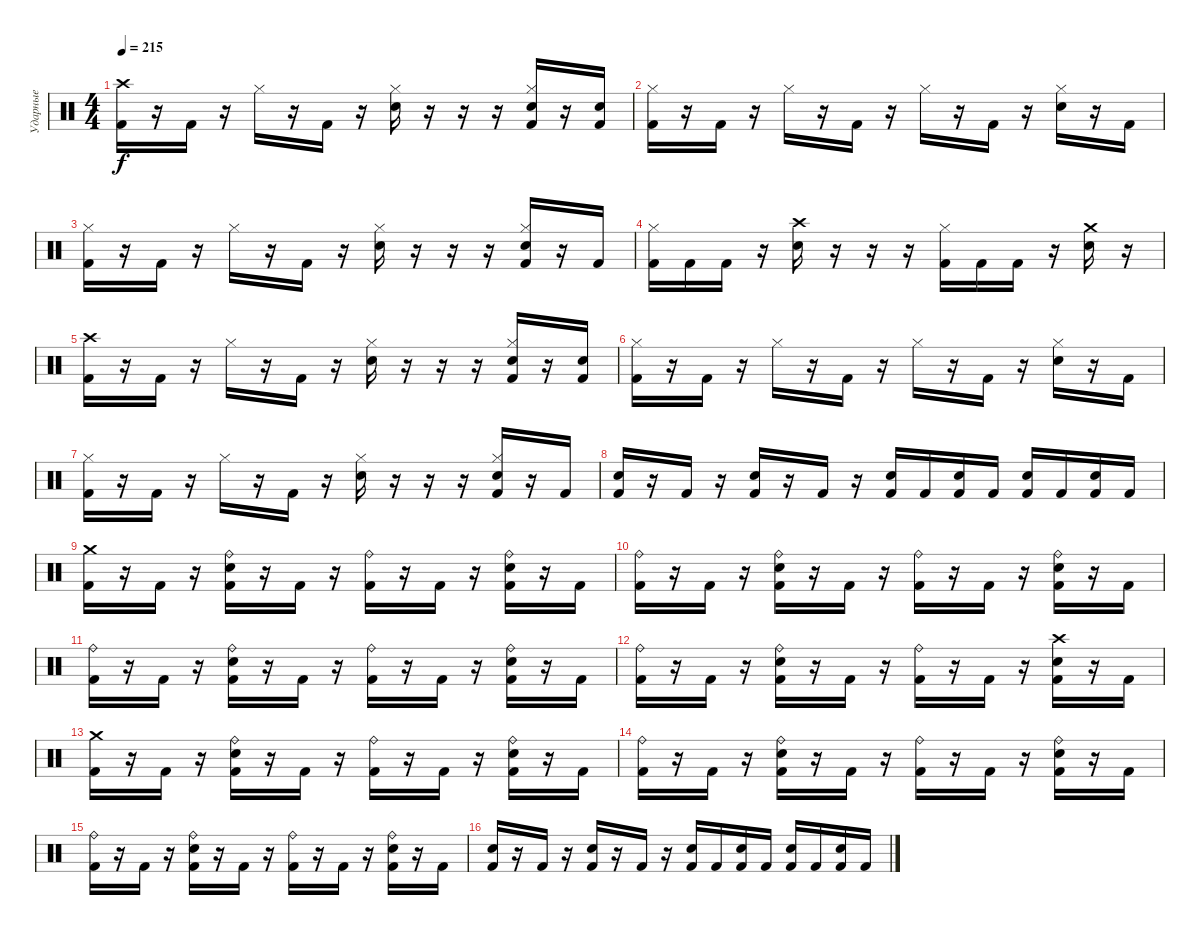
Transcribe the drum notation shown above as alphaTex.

\track ("Ударные" "Ударные") {instrument percussion}
\staff {score}
\articulation defaults
\ts (4 4)
\tempo 215
\clef neutral
\ks c
("Crash high (hit)" "Kick (hit) 2").16{dy f} r.16 "Kick (hit) 2".16 r.16 "Hi-Hat (closed)".16 r.16 "Kick (hit) 2".16 r.16 ("Hi-Hat (closed)" "Snare (hit) 2").16 r.16 r.16 r.16 ("Hi-Hat (closed)" "Snare (hit) 2" "Kick (hit) 2").16 r.16 ("Snare (hit) 2" "Kick (hit) 2").16 |
("Hi-Hat (closed)" "Kick (hit) 2").16 r.16 "Kick (hit) 2".16 r.16 "Hi-Hat (closed)".16 r.16 "Kick (hit) 2".16 r.16 "Hi-Hat (closed)".16 r.16 "Kick (hit) 2".16 r.16 ("Hi-Hat (closed)" "Snare (hit) 2").16 r.16 "Kick (hit) 2".16 |
("Hi-Hat (closed)" "Kick (hit) 2").16 r.16 "Kick (hit) 2".16 r.16 "Hi-Hat (closed)".16 r.16 "Kick (hit) 2".16 r.16 ("Hi-Hat (closed)" "Snare (hit) 2").16 r.16 r.16 r.16 ("Hi-Hat (closed)" "Snare (hit) 2" "Kick (hit) 2").16 r.16 "Kick (hit) 2".16 |
("Hi-Hat (closed)" "Kick (hit) 2").16 "Kick (hit) 2".16 "Kick (hit) 2".16 r.16 ("Crash high (hit)" "Snare (hit) 2").16 r.16 r.16 r.16 ("Hi-Hat (closed)" "Kick (hit) 2").16 "Kick (hit) 2".16 "Kick (hit) 2".16 r.16 ("Crash medium (hit)" "Snare (hit) 2").16 r.16 |
("Crash high (hit)" "Kick (hit) 2").16 r.16 "Kick (hit) 2".16 r.16 "Hi-Hat (closed)".16 r.16 "Kick (hit) 2".16 r.16 ("Hi-Hat (closed)" "Snare (hit) 2").16 r.16 r.16 r.16 ("Hi-Hat (closed)" "Snare (hit) 2" "Kick (hit) 2").16 r.16 ("Snare (hit) 2" "Kick (hit) 2").16 |
("Hi-Hat (closed)" "Kick (hit) 2").16 r.16 "Kick (hit) 2".16 r.16 "Hi-Hat (closed)".16 r.16 "Kick (hit) 2".16 r.16 "Hi-Hat (closed)".16 r.16 "Kick (hit) 2".16 r.16 ("Hi-Hat (closed)" "Snare (hit) 2").16 r.16 "Kick (hit) 2".16 |
("Hi-Hat (closed)" "Kick (hit) 2").16 r.16 "Kick (hit) 2".16 r.16 "Hi-Hat (closed)".16 r.16 "Kick (hit) 2".16 r.16 ("Hi-Hat (closed)" "Snare (hit) 2").16 r.16 r.16 r.16 ("Hi-Hat (closed)" "Snare (hit) 2" "Kick (hit) 2").16 r.16 "Kick (hit) 2".16 |
("Snare (hit) 2" "Kick (hit) 2").16 r.16 "Kick (hit) 2".16 r.16 ("Snare (hit) 2" "Kick (hit) 2").16 r.16 "Kick (hit) 2".16 r.16 ("Snare (hit) 2" "Kick (hit) 2").16 "Kick (hit) 2".16 ("Snare (hit) 2" "Kick (hit) 2").16 "Kick (hit) 2".16 ("Snare (hit) 2" "Kick (hit) 2").16 "Kick (hit) 2".16 ("Snare (hit) 2" "Kick (hit) 2").16 "Kick (hit) 2".16 |
("Crash medium (hit)" "Kick (hit) 2").16 r.16 "Kick (hit) 2".16 r.16 ("Ride (bell)" "Snare (hit) 2" "Kick (hit) 2").16 r.16 "Kick (hit) 2".16 r.16 ("Ride (bell)" "Kick (hit) 2").16 r.16 "Kick (hit) 2".16 r.16 ("Ride (bell)" "Snare (hit) 2" "Kick (hit) 2").16 r.16 "Kick (hit) 2".16 |
("Ride (bell)" "Kick (hit) 2").16 r.16 "Kick (hit) 2".16 r.16 ("Ride (bell)" "Snare (hit) 2" "Kick (hit) 2").16 r.16 "Kick (hit) 2".16 r.16 ("Ride (bell)" "Kick (hit) 2").16 r.16 "Kick (hit) 2".16 r.16 ("Ride (bell)" "Snare (hit) 2" "Kick (hit) 2").16 r.16 "Kick (hit) 2".16 |
("Ride (bell)" "Kick (hit) 2").16 r.16 "Kick (hit) 2".16 r.16 ("Ride (bell)" "Snare (hit) 2" "Kick (hit) 2").16 r.16 "Kick (hit) 2".16 r.16 ("Ride (bell)" "Kick (hit) 2").16 r.16 "Kick (hit) 2".16 r.16 ("Ride (bell)" "Snare (hit) 2" "Kick (hit) 2").16 r.16 "Kick (hit) 2".16 |
("Ride (bell)" "Kick (hit) 2").16 r.16 "Kick (hit) 2".16 r.16 ("Ride (bell)" "Snare (hit) 2" "Kick (hit) 2").16 r.16 "Kick (hit) 2".16 r.16 ("Ride (bell)" "Kick (hit) 2").16 r.16 "Kick (hit) 2".16 r.16 ("Crash high (hit)" "Snare (hit) 2" "Kick (hit) 2").16 r.16 "Kick (hit) 2".16 |
("Crash medium (hit)" "Kick (hit) 2").16 r.16 "Kick (hit) 2".16 r.16 ("Ride (bell)" "Snare (hit) 2" "Kick (hit) 2").16 r.16 "Kick (hit) 2".16 r.16 ("Ride (bell)" "Kick (hit) 2").16 r.16 "Kick (hit) 2".16 r.16 ("Ride (bell)" "Snare (hit) 2" "Kick (hit) 2").16 r.16 "Kick (hit) 2".16 |
("Ride (bell)" "Kick (hit) 2").16 r.16 "Kick (hit) 2".16 r.16 ("Ride (bell)" "Snare (hit) 2" "Kick (hit) 2").16 r.16 "Kick (hit) 2".16 r.16 ("Ride (bell)" "Kick (hit) 2").16 r.16 "Kick (hit) 2".16 r.16 ("Ride (bell)" "Snare (hit) 2" "Kick (hit) 2").16 r.16 "Kick (hit) 2".16 |
("Ride (bell)" "Kick (hit) 2").16 r.16 "Kick (hit) 2".16 r.16 ("Ride (bell)" "Snare (hit) 2" "Kick (hit) 2").16 r.16 "Kick (hit) 2".16 r.16 ("Ride (bell)" "Kick (hit) 2").16 r.16 "Kick (hit) 2".16 r.16 ("Ride (bell)" "Snare (hit) 2" "Kick (hit) 2").16 r.16 "Kick (hit) 2".16 |
("Snare (hit) 2" "Kick (hit) 2").16 r.16 "Kick (hit) 2".16 r.16 ("Snare (hit) 2" "Kick (hit) 2").16 r.16 "Kick (hit) 2".16 r.16 ("Snare (hit) 2" "Kick (hit) 2").16 "Kick (hit) 2".16 ("Snare (hit) 2" "Kick (hit) 2").16 "Kick (hit) 2".16 ("Snare (hit) 2" "Kick (hit) 2").16 "Kick (hit) 2".16 ("Snare (hit) 2" "Kick (hit) 2").16 "Kick (hit) 2".16
